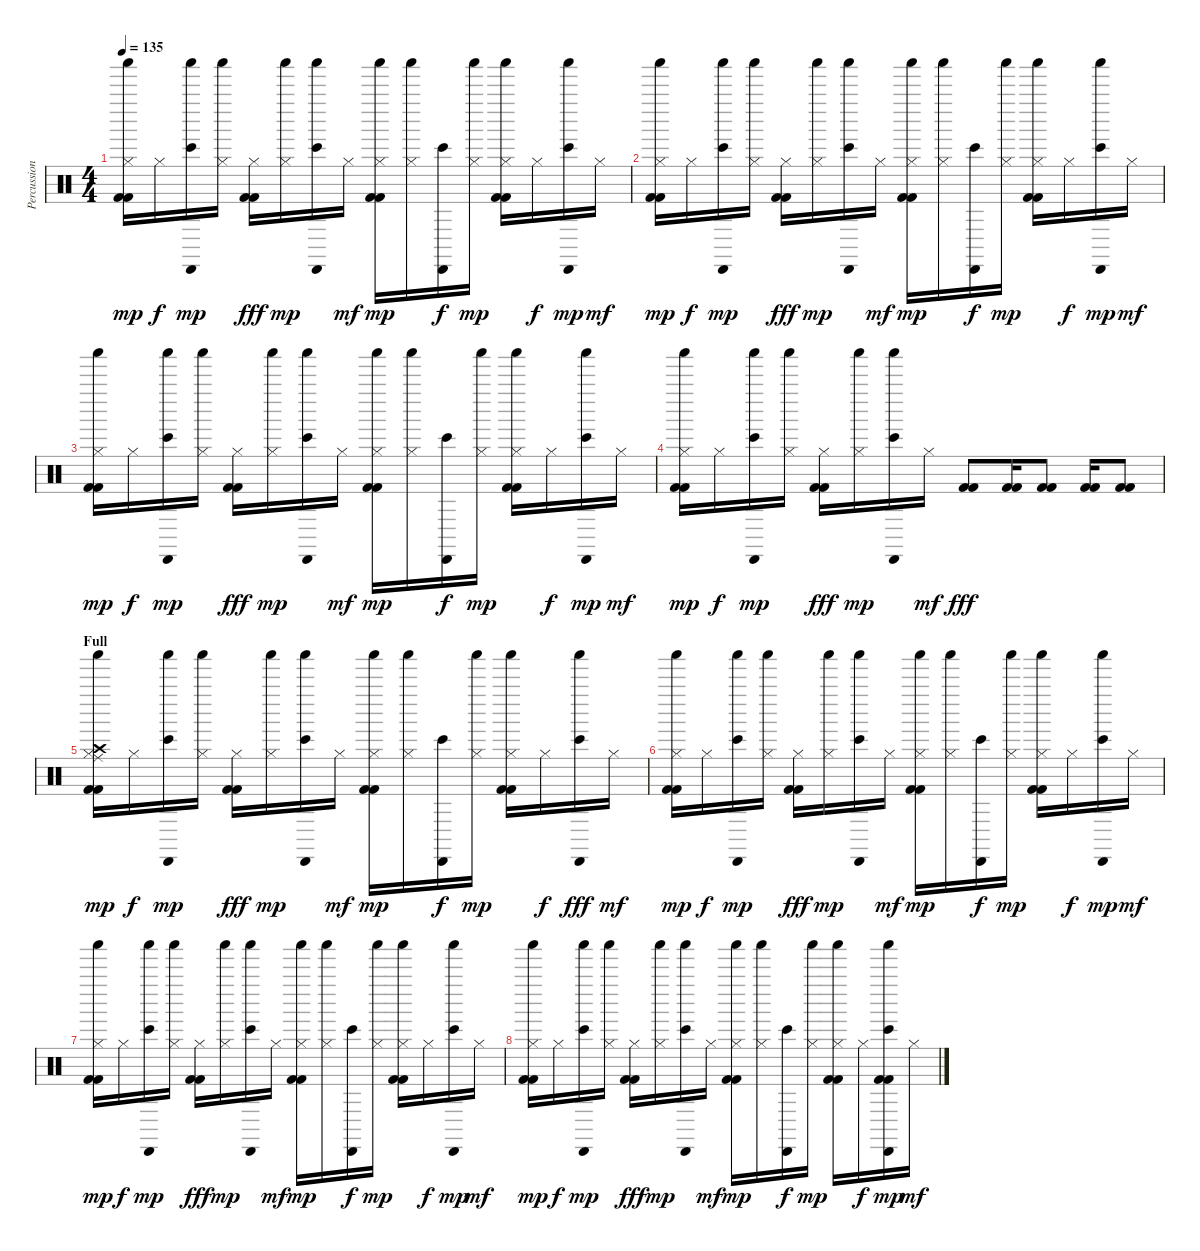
\track ("Percussion" "Percussion") {instrument percussion}
\staff {score}
\articulation defaults
\ts (4 4)
\tempo 135
\clef neutral
\ks c
("Hi-Hat (closed)" "Kick (hit) 2" "Kick (hit) 2" "Shaker (hit)").16{dy mp} "Hi-Hat (closed)".16{dy f} ("Cabasa (hit)" "Bongo High (hit)" "Shaker (hit)").16{dy mp} ("Hi-Hat (closed)" "Shaker (hit)").16 ("Hi-Hat (closed)" "Kick (hit) 2" "Kick (hit) 2").16{dy fff} ("Hi-Hat (closed)" "Shaker (hit)").16{dy mp} ("Cabasa (hit)" "Bongo High (hit)" "Shaker (hit)").16 "Hi-Hat (closed)".16{dy mf} ("Hi-Hat (closed)" "Kick (hit) 2" "Kick (hit) 2" "Shaker (hit)").16{dy mp} ("Hi-Hat (closed)" "Shaker (hit)").16 ("Cabasa (hit)" "Bongo High (hit)").16{dy f} ("Hi-Hat (closed)" "Shaker (hit)").16{dy mp} ("Hi-Hat (closed)" "Kick (hit) 2" "Kick (hit) 2" "Shaker (hit)").16 "Hi-Hat (closed)".16{dy f} ("Cabasa (hit)" "Bongo High (hit)" "Shaker (hit)").16{dy mp} "Hi-Hat (closed)".16{dy mf} |
("Hi-Hat (closed)" "Kick (hit) 2" "Kick (hit) 2" "Shaker (hit)").16{dy mp} "Hi-Hat (closed)".16{dy f} ("Cabasa (hit)" "Bongo High (hit)" "Shaker (hit)").16{dy mp} ("Hi-Hat (closed)" "Shaker (hit)").16 ("Hi-Hat (closed)" "Kick (hit) 2" "Kick (hit) 2").16{dy fff} ("Hi-Hat (closed)" "Shaker (hit)").16{dy mp} ("Cabasa (hit)" "Bongo High (hit)" "Shaker (hit)").16 "Hi-Hat (closed)".16{dy mf} ("Hi-Hat (closed)" "Kick (hit) 2" "Kick (hit) 2" "Shaker (hit)").16{dy mp} ("Hi-Hat (closed)" "Shaker (hit)").16 ("Cabasa (hit)" "Bongo High (hit)").16{dy f} ("Hi-Hat (closed)" "Shaker (hit)").16{dy mp} ("Hi-Hat (closed)" "Kick (hit) 2" "Kick (hit) 2" "Shaker (hit)").16 "Hi-Hat (closed)".16{dy f} ("Cabasa (hit)" "Bongo High (hit)" "Shaker (hit)").16{dy mp} "Hi-Hat (closed)".16{dy mf} |
("Hi-Hat (closed)" "Kick (hit) 2" "Kick (hit) 2" "Shaker (hit)").16{dy mp volume 14} "Hi-Hat (closed)".16{dy f} ("Cabasa (hit)" "Bongo High (hit)" "Shaker (hit)").16{dy mp} ("Hi-Hat (closed)" "Shaker (hit)").16 ("Hi-Hat (closed)" "Kick (hit) 2" "Kick (hit) 2").16{dy fff} ("Hi-Hat (closed)" "Shaker (hit)").16{dy mp} ("Cabasa (hit)" "Bongo High (hit)" "Shaker (hit)").16 "Hi-Hat (closed)".16{dy mf} ("Hi-Hat (closed)" "Kick (hit) 2" "Kick (hit) 2" "Shaker (hit)").16{dy mp} ("Hi-Hat (closed)" "Shaker (hit)").16 ("Cabasa (hit)" "Bongo High (hit)").16{dy f} ("Hi-Hat (closed)" "Shaker (hit)").16{dy mp} ("Hi-Hat (closed)" "Kick (hit) 2" "Kick (hit) 2" "Shaker (hit)").16 "Hi-Hat (closed)".16{dy f} ("Cabasa (hit)" "Bongo High (hit)" "Shaker (hit)").16{dy mp} "Hi-Hat (closed)".16{dy mf} |
("Hi-Hat (closed)" "Kick (hit) 2" "Kick (hit) 2" "Shaker (hit)").16{dy mp} "Hi-Hat (closed)".16{dy f} ("Cabasa (hit)" "Bongo High (hit)" "Shaker (hit)").16{dy mp} ("Hi-Hat (closed)" "Shaker (hit)").16 ("Hi-Hat (closed)" "Kick (hit) 2" "Kick (hit) 2").16{dy fff} ("Hi-Hat (closed)" "Shaker (hit)").16{dy mp} ("Cabasa (hit)" "Bongo High (hit)" "Shaker (hit)").16 "Hi-Hat (closed)".16{dy mf} ("Kick (hit) 2" "Kick (hit) 2").8{dy fff} ("Kick (hit) 2" "Kick (hit) 2").16 ("Kick (hit) 2" "Kick (hit) 2").8 ("Kick (hit) 2" "Kick (hit) 2").16 ("Kick (hit) 2" "Kick (hit) 2").8 |
\section ("" "Full")
("Ride (middle)" "Hi-Hat (closed)" "Crash high (hit)" "Kick (hit) 2" "Kick (hit) 2" "Shaker (hit)").16{dy mp volume 15} "Hi-Hat (closed)".16{dy f} ("Cabasa (hit)" "Bongo High (hit)" "Shaker (hit)").16{dy mp} ("Hi-Hat (closed)" "Shaker (hit)").16 ("Hi-Hat (closed)" "Kick (hit) 2" "Kick (hit) 2").16{dy fff} ("Hi-Hat (closed)" "Shaker (hit)").16{dy mp} ("Cabasa (hit)" "Bongo High (hit)" "Shaker (hit)").16 "Hi-Hat (closed)".16{dy mf} ("Hi-Hat (closed)" "Kick (hit) 2" "Kick (hit) 2" "Shaker (hit)").16{dy mp} ("Hi-Hat (closed)" "Shaker (hit)").16 ("Cabasa (hit)" "Bongo High (hit)").16{dy f} ("Hi-Hat (closed)" "Shaker (hit)").16{dy mp} ("Hi-Hat (closed)" "Kick (hit) 2" "Kick (hit) 2" "Shaker (hit)").16 "Hi-Hat (closed)".16{dy f} ("Cabasa (hit)" "Bongo High (hit)" "Shaker (hit)").16{dy fff} "Hi-Hat (closed)".16{dy mf} |
("Hi-Hat (closed)" "Kick (hit) 2" "Kick (hit) 2" "Shaker (hit)").16{dy mp} "Hi-Hat (closed)".16{dy f} ("Cabasa (hit)" "Bongo High (hit)" "Shaker (hit)").16{dy mp} ("Hi-Hat (closed)" "Shaker (hit)").16 ("Hi-Hat (closed)" "Kick (hit) 2" "Kick (hit) 2").16{dy fff} ("Hi-Hat (closed)" "Shaker (hit)").16{dy mp} ("Cabasa (hit)" "Bongo High (hit)" "Shaker (hit)").16 "Hi-Hat (closed)".16{dy mf} ("Hi-Hat (closed)" "Kick (hit) 2" "Kick (hit) 2" "Shaker (hit)").16{dy mp} ("Hi-Hat (closed)" "Shaker (hit)").16 ("Cabasa (hit)" "Bongo High (hit)").16{dy f} ("Hi-Hat (closed)" "Shaker (hit)").16{dy mp} ("Hi-Hat (closed)" "Kick (hit) 2" "Kick (hit) 2" "Shaker (hit)").16 "Hi-Hat (closed)".16{dy f} ("Cabasa (hit)" "Bongo High (hit)" "Shaker (hit)").16{dy mp} "Hi-Hat (closed)".16{dy mf} |
("Hi-Hat (closed)" "Kick (hit) 2" "Kick (hit) 2" "Shaker (hit)").16{dy mp} "Hi-Hat (closed)".16{dy f} ("Cabasa (hit)" "Bongo High (hit)" "Shaker (hit)").16{dy mp} ("Hi-Hat (closed)" "Shaker (hit)").16 ("Hi-Hat (closed)" "Kick (hit) 2" "Kick (hit) 2").16{dy fff} ("Hi-Hat (closed)" "Shaker (hit)").16{dy mp} ("Cabasa (hit)" "Bongo High (hit)" "Shaker (hit)").16 "Hi-Hat (closed)".16{dy mf} ("Hi-Hat (closed)" "Kick (hit) 2" "Kick (hit) 2" "Shaker (hit)").16{dy mp} ("Hi-Hat (closed)" "Shaker (hit)").16 ("Cabasa (hit)" "Bongo High (hit)").16{dy f} ("Hi-Hat (closed)" "Shaker (hit)").16{dy mp} ("Hi-Hat (closed)" "Kick (hit) 2" "Kick (hit) 2" "Shaker (hit)").16 "Hi-Hat (closed)".16{dy f} ("Cabasa (hit)" "Bongo High (hit)" "Shaker (hit)").16{dy mp} "Hi-Hat (closed)".16{dy mf} |
("Hi-Hat (closed)" "Kick (hit) 2" "Kick (hit) 2" "Shaker (hit)").16{dy mp} "Hi-Hat (closed)".16{dy f} ("Cabasa (hit)" "Bongo High (hit)" "Shaker (hit)").16{dy mp} ("Hi-Hat (closed)" "Shaker (hit)").16 ("Hi-Hat (closed)" "Kick (hit) 2" "Kick (hit) 2").16{dy fff} ("Hi-Hat (closed)" "Shaker (hit)").16{dy mp} ("Cabasa (hit)" "Bongo High (hit)" "Shaker (hit)").16 "Hi-Hat (closed)".16{dy mf} ("Hi-Hat (closed)" "Kick (hit) 2" "Kick (hit) 2" "Shaker (hit)").16{dy mp} ("Hi-Hat (closed)" "Shaker (hit)").16 ("Cabasa (hit)" "Bongo High (hit)").16{dy f} ("Hi-Hat (closed)" "Shaker (hit)").16{dy mp} ("Hi-Hat (closed)" "Kick (hit) 2" "Kick (hit) 2" "Shaker (hit)").16 "Hi-Hat (closed)".16{dy f} ("Cabasa (hit)" "Bongo High (hit)" "Kick (hit) 2" "Kick (hit) 2" "Shaker (hit)").16{dy mp} "Hi-Hat (closed)".16{dy mf}
